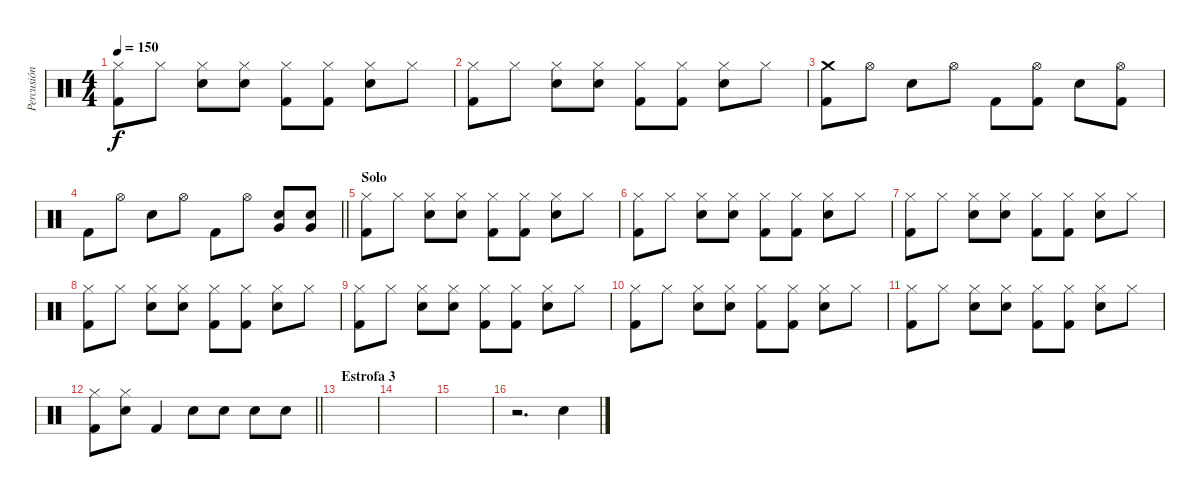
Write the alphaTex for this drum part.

\track ("Percusión" "Percusión") {instrument percussion}
\staff {score}
\articulation defaults
\ts (4 4)
\tempo 150
\clef neutral
\ks c
("Hi-Hat (closed)" "Kick (hit) 2").8{dy f} "Hi-Hat (closed)".8 ("Hi-Hat (closed)" "Electric Snare (hit)").8 ("Hi-Hat (closed)" "Electric Snare (hit)").8 ("Hi-Hat (closed)" "Kick (hit) 2").8 ("Hi-Hat (closed)" "Kick (hit) 2").8 ("Hi-Hat (closed)" "Electric Snare (hit)").8 "Hi-Hat (closed)".8 |
("Hi-Hat (closed)" "Kick (hit) 2").8 "Hi-Hat (closed)".8 ("Hi-Hat (closed)" "Electric Snare (hit)").8 ("Hi-Hat (closed)" "Electric Snare (hit)").8 ("Hi-Hat (closed)" "Kick (hit) 2").8 ("Hi-Hat (closed)" "Kick (hit) 2").8 ("Hi-Hat (closed)" "Electric Snare (hit)").8 "Hi-Hat (closed)".8 |
("Crash medium (hit)" "Kick (hit) 2").8 "Hi-Hat (open)".8 "Electric Snare (hit)".8 "Hi-Hat (open)".8 "Kick (hit) 2".8 ("Hi-Hat (open)" "Kick (hit) 2").8 "Electric Snare (hit)".8 ("Hi-Hat (open)" "Kick (hit) 2").8 |
\barLineRight lightlight "Kick (hit) 2".8 "Hi-Hat (open)".8 "Electric Snare (hit)".8 "Hi-Hat (open)".8 "Kick (hit) 2".8 "Hi-Hat (open)".8
("Very Low Tom (hit)" "Electric Snare (hit)").8 ("Very Low Tom (hit)" "Electric Snare (hit)").8 |
\section ("" "Solo")
("Hi-Hat (closed)" "Kick (hit) 2").8 "Hi-Hat (closed)".8 ("Hi-Hat (closed)" "Electric Snare (hit)").8 ("Hi-Hat (closed)" "Electric Snare (hit)").8 ("Hi-Hat (closed)" "Kick (hit) 2").8 ("Hi-Hat (closed)" "Kick (hit) 2").8 ("Hi-Hat (closed)" "Electric Snare (hit)").8 "Hi-Hat (closed)".8 |
("Hi-Hat (closed)" "Kick (hit) 2").8 "Hi-Hat (closed)".8 ("Hi-Hat (closed)" "Electric Snare (hit)").8 ("Hi-Hat (closed)" "Electric Snare (hit)").8 ("Hi-Hat (closed)" "Kick (hit) 2").8 ("Hi-Hat (closed)" "Kick (hit) 2").8 ("Hi-Hat (closed)" "Electric Snare (hit)").8 "Hi-Hat (closed)".8 |
("Hi-Hat (closed)" "Kick (hit) 2").8 "Hi-Hat (closed)".8 ("Hi-Hat (closed)" "Electric Snare (hit)").8 ("Hi-Hat (closed)" "Electric Snare (hit)").8 ("Hi-Hat (closed)" "Kick (hit) 2").8 ("Hi-Hat (closed)" "Kick (hit) 2").8 ("Hi-Hat (closed)" "Electric Snare (hit)").8 "Hi-Hat (closed)".8 |
("Hi-Hat (closed)" "Kick (hit) 2").8 "Hi-Hat (closed)".8 ("Hi-Hat (closed)" "Electric Snare (hit)").8 ("Hi-Hat (closed)" "Electric Snare (hit)").8 ("Hi-Hat (closed)" "Kick (hit) 2").8 ("Hi-Hat (closed)" "Kick (hit) 2").8 ("Hi-Hat (closed)" "Electric Snare (hit)").8 "Hi-Hat (closed)".8 |
("Hi-Hat (closed)" "Kick (hit) 2").8 "Hi-Hat (closed)".8 ("Hi-Hat (closed)" "Electric Snare (hit)").8 ("Hi-Hat (closed)" "Electric Snare (hit)").8 ("Hi-Hat (closed)" "Kick (hit) 2").8 ("Hi-Hat (closed)" "Kick (hit) 2").8 ("Hi-Hat (closed)" "Electric Snare (hit)").8 "Hi-Hat (closed)".8 |
("Hi-Hat (closed)" "Kick (hit) 2").8 "Hi-Hat (closed)".8 ("Hi-Hat (closed)" "Electric Snare (hit)").8 ("Hi-Hat (closed)" "Electric Snare (hit)").8 ("Hi-Hat (closed)" "Kick (hit) 2").8 ("Hi-Hat (closed)" "Kick (hit) 2").8 ("Hi-Hat (closed)" "Electric Snare (hit)").8 "Hi-Hat (closed)".8 |
("Hi-Hat (closed)" "Kick (hit) 2").8 "Hi-Hat (closed)".8 ("Hi-Hat (closed)" "Electric Snare (hit)").8 ("Hi-Hat (closed)" "Electric Snare (hit)").8 ("Hi-Hat (closed)" "Kick (hit) 2").8 ("Hi-Hat (closed)" "Kick (hit) 2").8 ("Hi-Hat (closed)" "Electric Snare (hit)").8 "Hi-Hat (closed)".8 |
\barLineRight lightlight
("Hi-Hat (closed)" "Kick (hit) 2").8 ("Hi-Hat (closed)" "Electric Snare (hit)").8 "Kick (hit) 2".4 "Electric Snare (hit)".8 "Electric Snare (hit)".8 "Electric Snare (hit)".8 "Electric Snare (hit)".8 |
\section ("" "Estrofa 3")
|
|
|
r.2{d} "Electric Snare (hit)".4
